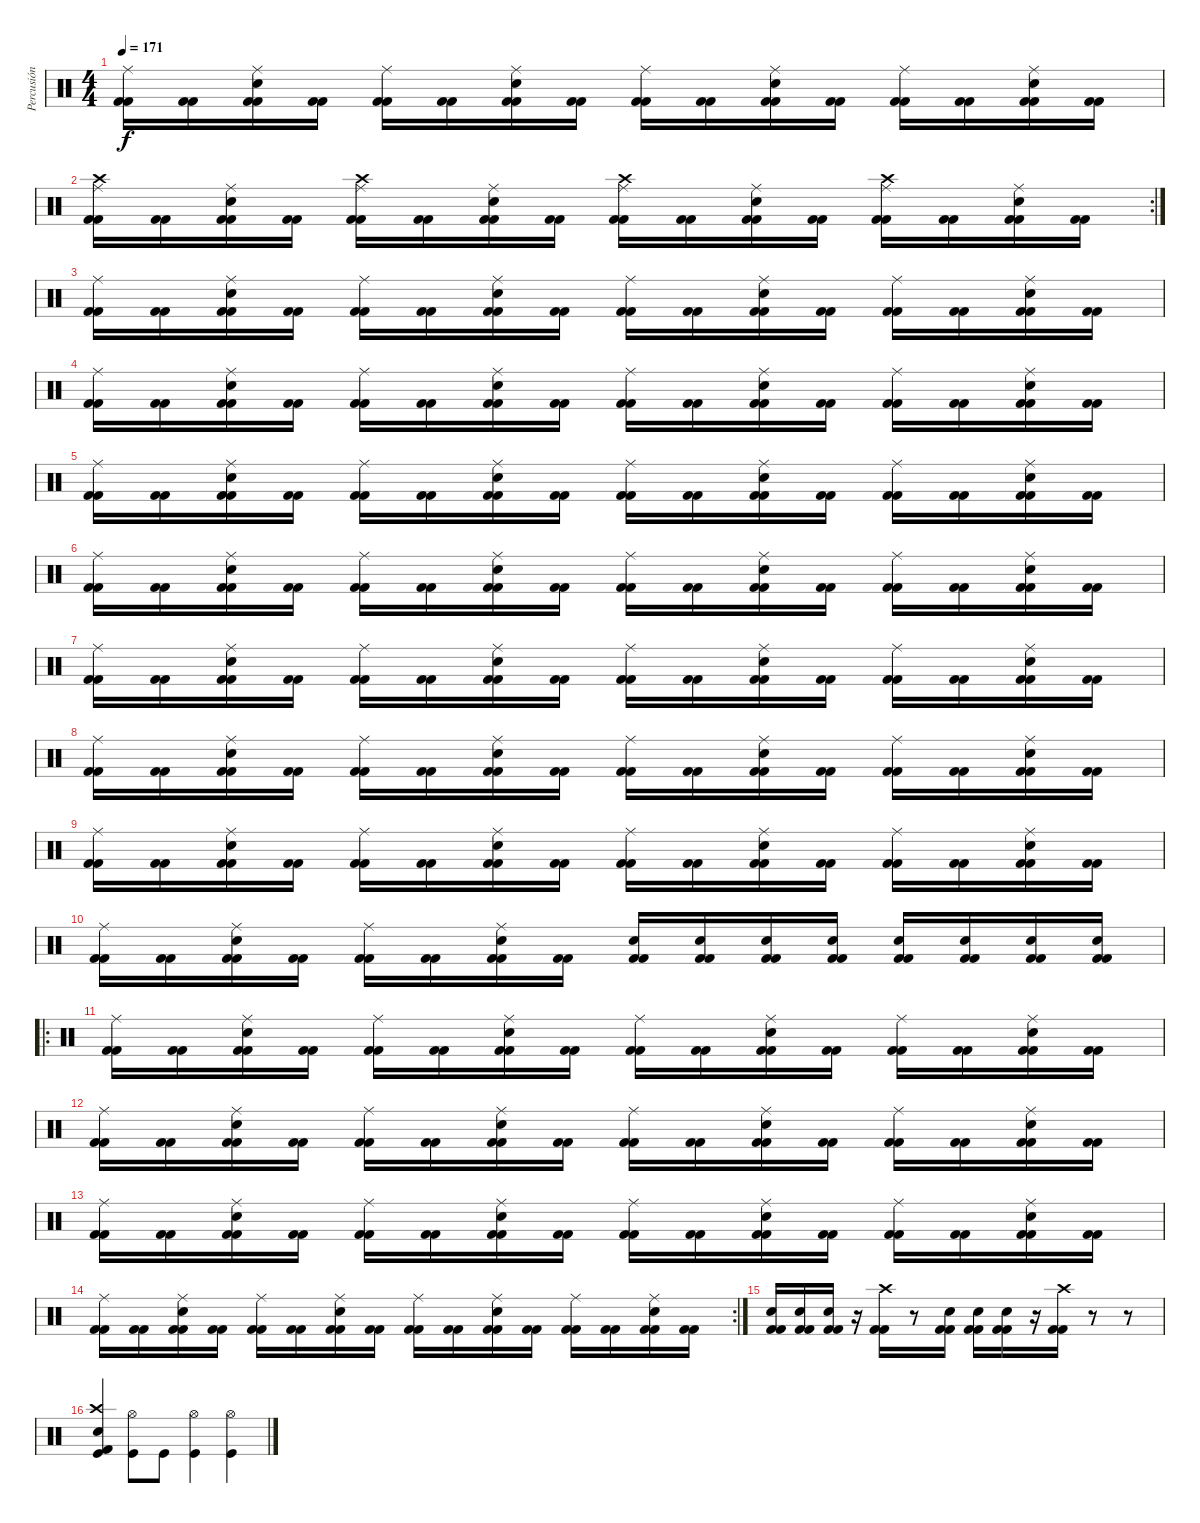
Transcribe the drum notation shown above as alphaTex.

\track ("Percusión" "Percusión") {instrument percussion}
\staff {score}
\articulation defaults
\ts (4 4)
\tempo 171
\clef neutral
\ks c
("Kick (hit) 2" "Kick (hit) 2" "Ride (middle)").16{dy f} ("Kick (hit) 2" "Kick (hit) 2").16 ("Kick (hit) 2" "Kick (hit) 2" "Electric Snare (hit)" "Ride (middle)").16 ("Kick (hit) 2" "Kick (hit) 2").16 ("Kick (hit) 2" "Kick (hit) 2" "Ride (middle)").16 ("Kick (hit) 2" "Kick (hit) 2").16 ("Kick (hit) 2" "Kick (hit) 2" "Electric Snare (hit)" "Ride (middle)").16 ("Kick (hit) 2" "Kick (hit) 2").16 ("Kick (hit) 2" "Kick (hit) 2" "Ride (middle)").16 ("Kick (hit) 2" "Kick (hit) 2").16 ("Kick (hit) 2" "Kick (hit) 2" "Electric Snare (hit)" "Ride (middle)").16 ("Kick (hit) 2" "Kick (hit) 2").16 ("Kick (hit) 2" "Kick (hit) 2" "Ride (middle)").16 ("Kick (hit) 2" "Kick (hit) 2").16 ("Kick (hit) 2" "Kick (hit) 2" "Electric Snare (hit)" "Ride (middle)").16 ("Kick (hit) 2" "Kick (hit) 2").16 |
\rc 2
("Kick (hit) 2" "Kick (hit) 2" "Ride (middle)" "Crash high (hit)").16 ("Kick (hit) 2" "Kick (hit) 2").16 ("Kick (hit) 2" "Kick (hit) 2" "Electric Snare (hit)" "Ride (middle)").16 ("Kick (hit) 2" "Kick (hit) 2").16 ("Kick (hit) 2" "Kick (hit) 2" "Ride (middle)" "Crash high (hit)").16 ("Kick (hit) 2" "Kick (hit) 2").16 ("Kick (hit) 2" "Kick (hit) 2" "Electric Snare (hit)" "Ride (middle)").16 ("Kick (hit) 2" "Kick (hit) 2").16 ("Kick (hit) 2" "Kick (hit) 2" "Ride (middle)" "Crash high (hit)").16 ("Kick (hit) 2" "Kick (hit) 2").16 ("Kick (hit) 2" "Kick (hit) 2" "Electric Snare (hit)" "Ride (middle)").16 ("Kick (hit) 2" "Kick (hit) 2").16 ("Kick (hit) 2" "Kick (hit) 2" "Ride (middle)" "Crash high (hit)").16 ("Kick (hit) 2" "Kick (hit) 2").16 ("Kick (hit) 2" "Kick (hit) 2" "Electric Snare (hit)" "Ride (middle)").16 ("Kick (hit) 2" "Kick (hit) 2").16 |
("Kick (hit) 2" "Kick (hit) 2" "Ride (middle)").16 ("Kick (hit) 2" "Kick (hit) 2").16 ("Kick (hit) 2" "Kick (hit) 2" "Electric Snare (hit)" "Ride (middle)").16 ("Kick (hit) 2" "Kick (hit) 2").16 ("Kick (hit) 2" "Kick (hit) 2" "Ride (middle)").16 ("Kick (hit) 2" "Kick (hit) 2").16 ("Kick (hit) 2" "Kick (hit) 2" "Electric Snare (hit)" "Ride (middle)").16 ("Kick (hit) 2" "Kick (hit) 2").16 ("Kick (hit) 2" "Kick (hit) 2" "Ride (middle)").16 ("Kick (hit) 2" "Kick (hit) 2").16 ("Kick (hit) 2" "Kick (hit) 2" "Electric Snare (hit)" "Ride (middle)").16 ("Kick (hit) 2" "Kick (hit) 2").16 ("Kick (hit) 2" "Kick (hit) 2" "Ride (middle)").16 ("Kick (hit) 2" "Kick (hit) 2").16 ("Kick (hit) 2" "Kick (hit) 2" "Electric Snare (hit)" "Ride (middle)").16 ("Kick (hit) 2" "Kick (hit) 2").16 |
("Kick (hit) 2" "Kick (hit) 2" "Ride (middle)").16 ("Kick (hit) 2" "Kick (hit) 2").16 ("Kick (hit) 2" "Kick (hit) 2" "Electric Snare (hit)" "Ride (middle)").16 ("Kick (hit) 2" "Kick (hit) 2").16 ("Kick (hit) 2" "Kick (hit) 2" "Ride (middle)").16 ("Kick (hit) 2" "Kick (hit) 2").16 ("Kick (hit) 2" "Kick (hit) 2" "Electric Snare (hit)" "Ride (middle)").16 ("Kick (hit) 2" "Kick (hit) 2").16 ("Kick (hit) 2" "Kick (hit) 2" "Ride (middle)").16 ("Kick (hit) 2" "Kick (hit) 2").16 ("Kick (hit) 2" "Kick (hit) 2" "Electric Snare (hit)" "Ride (middle)").16 ("Kick (hit) 2" "Kick (hit) 2").16 ("Kick (hit) 2" "Kick (hit) 2" "Ride (middle)").16 ("Kick (hit) 2" "Kick (hit) 2").16 ("Kick (hit) 2" "Kick (hit) 2" "Electric Snare (hit)" "Ride (middle)").16 ("Kick (hit) 2" "Kick (hit) 2").16 |
("Kick (hit) 2" "Kick (hit) 2" "Ride (middle)").16 ("Kick (hit) 2" "Kick (hit) 2").16 ("Kick (hit) 2" "Kick (hit) 2" "Electric Snare (hit)" "Ride (middle)").16 ("Kick (hit) 2" "Kick (hit) 2").16 ("Kick (hit) 2" "Kick (hit) 2" "Ride (middle)").16 ("Kick (hit) 2" "Kick (hit) 2").16 ("Kick (hit) 2" "Kick (hit) 2" "Electric Snare (hit)" "Ride (middle)").16 ("Kick (hit) 2" "Kick (hit) 2").16 ("Kick (hit) 2" "Kick (hit) 2" "Ride (middle)").16 ("Kick (hit) 2" "Kick (hit) 2").16 ("Kick (hit) 2" "Kick (hit) 2" "Electric Snare (hit)" "Ride (middle)").16 ("Kick (hit) 2" "Kick (hit) 2").16 ("Kick (hit) 2" "Kick (hit) 2" "Ride (middle)").16 ("Kick (hit) 2" "Kick (hit) 2").16 ("Kick (hit) 2" "Kick (hit) 2" "Electric Snare (hit)" "Ride (middle)").16 ("Kick (hit) 2" "Kick (hit) 2").16 |
("Kick (hit) 2" "Kick (hit) 2" "Ride (middle)").16 ("Kick (hit) 2" "Kick (hit) 2").16 ("Kick (hit) 2" "Kick (hit) 2" "Electric Snare (hit)" "Ride (middle)").16 ("Kick (hit) 2" "Kick (hit) 2").16 ("Kick (hit) 2" "Kick (hit) 2" "Ride (middle)").16 ("Kick (hit) 2" "Kick (hit) 2").16 ("Kick (hit) 2" "Kick (hit) 2" "Electric Snare (hit)" "Ride (middle)").16 ("Kick (hit) 2" "Kick (hit) 2").16 ("Kick (hit) 2" "Kick (hit) 2" "Ride (middle)").16 ("Kick (hit) 2" "Kick (hit) 2").16 ("Kick (hit) 2" "Kick (hit) 2" "Electric Snare (hit)" "Ride (middle)").16 ("Kick (hit) 2" "Kick (hit) 2").16 ("Kick (hit) 2" "Kick (hit) 2" "Ride (middle)").16 ("Kick (hit) 2" "Kick (hit) 2").16 ("Kick (hit) 2" "Kick (hit) 2" "Electric Snare (hit)" "Ride (middle)").16 ("Kick (hit) 2" "Kick (hit) 2").16 |
("Kick (hit) 2" "Kick (hit) 2" "Ride (middle)").16 ("Kick (hit) 2" "Kick (hit) 2").16 ("Kick (hit) 2" "Kick (hit) 2" "Electric Snare (hit)" "Ride (middle)").16 ("Kick (hit) 2" "Kick (hit) 2").16 ("Kick (hit) 2" "Kick (hit) 2" "Ride (middle)").16 ("Kick (hit) 2" "Kick (hit) 2").16 ("Kick (hit) 2" "Kick (hit) 2" "Electric Snare (hit)" "Ride (middle)").16 ("Kick (hit) 2" "Kick (hit) 2").16 ("Kick (hit) 2" "Kick (hit) 2" "Ride (middle)").16 ("Kick (hit) 2" "Kick (hit) 2").16 ("Kick (hit) 2" "Kick (hit) 2" "Electric Snare (hit)" "Ride (middle)").16 ("Kick (hit) 2" "Kick (hit) 2").16 ("Kick (hit) 2" "Kick (hit) 2" "Ride (middle)").16 ("Kick (hit) 2" "Kick (hit) 2").16 ("Kick (hit) 2" "Kick (hit) 2" "Electric Snare (hit)" "Ride (middle)").16 ("Kick (hit) 2" "Kick (hit) 2").16 |
("Kick (hit) 2" "Kick (hit) 2" "Ride (middle)").16 ("Kick (hit) 2" "Kick (hit) 2").16 ("Kick (hit) 2" "Kick (hit) 2" "Electric Snare (hit)" "Ride (middle)").16 ("Kick (hit) 2" "Kick (hit) 2").16 ("Kick (hit) 2" "Kick (hit) 2" "Ride (middle)").16 ("Kick (hit) 2" "Kick (hit) 2").16 ("Kick (hit) 2" "Kick (hit) 2" "Electric Snare (hit)" "Ride (middle)").16 ("Kick (hit) 2" "Kick (hit) 2").16 ("Kick (hit) 2" "Kick (hit) 2" "Ride (middle)").16 ("Kick (hit) 2" "Kick (hit) 2").16 ("Kick (hit) 2" "Kick (hit) 2" "Electric Snare (hit)" "Ride (middle)").16 ("Kick (hit) 2" "Kick (hit) 2").16 ("Kick (hit) 2" "Kick (hit) 2" "Ride (middle)").16 ("Kick (hit) 2" "Kick (hit) 2").16 ("Kick (hit) 2" "Kick (hit) 2" "Electric Snare (hit)" "Ride (middle)").16 ("Kick (hit) 2" "Kick (hit) 2").16 |
("Kick (hit) 2" "Kick (hit) 2" "Ride (middle)").16 ("Kick (hit) 2" "Kick (hit) 2").16 ("Kick (hit) 2" "Kick (hit) 2" "Electric Snare (hit)" "Ride (middle)").16 ("Kick (hit) 2" "Kick (hit) 2").16 ("Kick (hit) 2" "Kick (hit) 2" "Ride (middle)").16 ("Kick (hit) 2" "Kick (hit) 2").16 ("Kick (hit) 2" "Kick (hit) 2" "Electric Snare (hit)" "Ride (middle)").16 ("Kick (hit) 2" "Kick (hit) 2").16 ("Kick (hit) 2" "Kick (hit) 2" "Ride (middle)").16 ("Kick (hit) 2" "Kick (hit) 2").16 ("Kick (hit) 2" "Kick (hit) 2" "Electric Snare (hit)" "Ride (middle)").16 ("Kick (hit) 2" "Kick (hit) 2").16 ("Kick (hit) 2" "Kick (hit) 2" "Ride (middle)").16 ("Kick (hit) 2" "Kick (hit) 2").16 ("Kick (hit) 2" "Kick (hit) 2" "Electric Snare (hit)" "Ride (middle)").16 ("Kick (hit) 2" "Kick (hit) 2").16 |
("Kick (hit) 2" "Kick (hit) 2" "Ride (middle)").16 ("Kick (hit) 2" "Kick (hit) 2").16 ("Kick (hit) 2" "Kick (hit) 2" "Electric Snare (hit)" "Ride (middle)").16 ("Kick (hit) 2" "Kick (hit) 2").16 ("Kick (hit) 2" "Kick (hit) 2" "Ride (middle)").16 ("Kick (hit) 2" "Kick (hit) 2").16 ("Kick (hit) 2" "Kick (hit) 2" "Electric Snare (hit)" "Ride (middle)").16 ("Kick (hit) 2" "Kick (hit) 2").16 ("Kick (hit) 2" "Kick (hit) 2" "Electric Snare (hit)").16 ("Kick (hit) 2" "Kick (hit) 2" "Electric Snare (hit)").16 ("Kick (hit) 2" "Kick (hit) 2" "Electric Snare (hit)").16 ("Kick (hit) 2" "Kick (hit) 2" "Electric Snare (hit)").16 ("Kick (hit) 2" "Kick (hit) 2" "Electric Snare (hit)").16 ("Kick (hit) 2" "Kick (hit) 2" "Electric Snare (hit)").16 ("Kick (hit) 2" "Kick (hit) 2" "Electric Snare (hit)").16 ("Kick (hit) 2" "Kick (hit) 2" "Electric Snare (hit)").16 |
\ro
("Kick (hit) 2" "Kick (hit) 2" "Ride (middle)").16 ("Kick (hit) 2" "Kick (hit) 2").16 ("Kick (hit) 2" "Kick (hit) 2" "Electric Snare (hit)" "Ride (middle)").16 ("Kick (hit) 2" "Kick (hit) 2").16 ("Kick (hit) 2" "Kick (hit) 2" "Ride (middle)").16 ("Kick (hit) 2" "Kick (hit) 2").16 ("Kick (hit) 2" "Kick (hit) 2" "Electric Snare (hit)" "Ride (middle)").16 ("Kick (hit) 2" "Kick (hit) 2").16 ("Kick (hit) 2" "Kick (hit) 2" "Ride (middle)").16 ("Kick (hit) 2" "Kick (hit) 2").16 ("Kick (hit) 2" "Kick (hit) 2" "Electric Snare (hit)" "Ride (middle)").16 ("Kick (hit) 2" "Kick (hit) 2").16 ("Kick (hit) 2" "Kick (hit) 2" "Ride (middle)").16 ("Kick (hit) 2" "Kick (hit) 2").16 ("Kick (hit) 2" "Kick (hit) 2" "Electric Snare (hit)" "Ride (middle)").16 ("Kick (hit) 2" "Kick (hit) 2").16 |
("Kick (hit) 2" "Kick (hit) 2" "Ride (middle)").16 ("Kick (hit) 2" "Kick (hit) 2").16 ("Kick (hit) 2" "Kick (hit) 2" "Electric Snare (hit)" "Ride (middle)").16 ("Kick (hit) 2" "Kick (hit) 2").16 ("Kick (hit) 2" "Kick (hit) 2" "Ride (middle)").16 ("Kick (hit) 2" "Kick (hit) 2").16 ("Kick (hit) 2" "Kick (hit) 2" "Electric Snare (hit)" "Ride (middle)").16 ("Kick (hit) 2" "Kick (hit) 2").16 ("Kick (hit) 2" "Kick (hit) 2" "Ride (middle)").16 ("Kick (hit) 2" "Kick (hit) 2").16 ("Kick (hit) 2" "Kick (hit) 2" "Electric Snare (hit)" "Ride (middle)").16 ("Kick (hit) 2" "Kick (hit) 2").16 ("Kick (hit) 2" "Kick (hit) 2" "Ride (middle)").16 ("Kick (hit) 2" "Kick (hit) 2").16 ("Kick (hit) 2" "Kick (hit) 2" "Electric Snare (hit)" "Ride (middle)").16 ("Kick (hit) 2" "Kick (hit) 2").16 |
("Kick (hit) 2" "Kick (hit) 2" "Ride (middle)").16 ("Kick (hit) 2" "Kick (hit) 2").16 ("Kick (hit) 2" "Kick (hit) 2" "Electric Snare (hit)" "Ride (middle)").16 ("Kick (hit) 2" "Kick (hit) 2").16 ("Kick (hit) 2" "Kick (hit) 2" "Ride (middle)").16 ("Kick (hit) 2" "Kick (hit) 2").16 ("Kick (hit) 2" "Kick (hit) 2" "Electric Snare (hit)" "Ride (middle)").16 ("Kick (hit) 2" "Kick (hit) 2").16 ("Kick (hit) 2" "Kick (hit) 2" "Ride (middle)").16 ("Kick (hit) 2" "Kick (hit) 2").16 ("Kick (hit) 2" "Kick (hit) 2" "Electric Snare (hit)" "Ride (middle)").16 ("Kick (hit) 2" "Kick (hit) 2").16 ("Kick (hit) 2" "Kick (hit) 2" "Ride (middle)").16 ("Kick (hit) 2" "Kick (hit) 2").16 ("Kick (hit) 2" "Kick (hit) 2" "Electric Snare (hit)" "Ride (middle)").16 ("Kick (hit) 2" "Kick (hit) 2").16 |
\rc 2
("Kick (hit) 2" "Kick (hit) 2" "Ride (middle)").16 ("Kick (hit) 2" "Kick (hit) 2").16 ("Kick (hit) 2" "Kick (hit) 2" "Electric Snare (hit)" "Ride (middle)").16 ("Kick (hit) 2" "Kick (hit) 2").16 ("Kick (hit) 2" "Kick (hit) 2" "Ride (middle)").16 ("Kick (hit) 2" "Kick (hit) 2").16 ("Kick (hit) 2" "Kick (hit) 2" "Electric Snare (hit)" "Ride (middle)").16 ("Kick (hit) 2" "Kick (hit) 2").16 ("Kick (hit) 2" "Kick (hit) 2" "Ride (middle)").16 ("Kick (hit) 2" "Kick (hit) 2").16 ("Kick (hit) 2" "Kick (hit) 2" "Electric Snare (hit)" "Ride (middle)").16 ("Kick (hit) 2" "Kick (hit) 2").16 ("Kick (hit) 2" "Kick (hit) 2" "Ride (middle)").16 ("Kick (hit) 2" "Kick (hit) 2").16 ("Kick (hit) 2" "Kick (hit) 2" "Electric Snare (hit)" "Ride (middle)").16 ("Kick (hit) 2" "Kick (hit) 2").16 |
("Kick (hit) 2" "Kick (hit) 2" "Electric Snare (hit)").16 ("Kick (hit) 2" "Kick (hit) 2" "Electric Snare (hit)").16 ("Kick (hit) 2" "Kick (hit) 2" "Electric Snare (hit)").16 r.16 ("Kick (hit) 2" "Kick (hit) 2" "Crash high (hit)").16 r.8 ("Kick (hit) 2" "Kick (hit) 2" "Electric Snare (hit)").16 ("Kick (hit) 2" "Kick (hit) 2" "Electric Snare (hit)").16 ("Kick (hit) 2" "Kick (hit) 2" "Electric Snare (hit)").16 r.16 ("Kick (hit) 2" "Kick (hit) 2" "Crash high (hit)").16 r.8 r.8 |
("Kick (hit) 2" "Kick (hit)" "Electric Snare (hit)" "Crash high (hit)").4 ("Hi-Hat (open)" "Kick (hit)").8 "Kick (hit)".8 ("Hi-Hat (open)" "Kick (hit)").4 ("Hi-Hat (open)" "Kick (hit)").4
